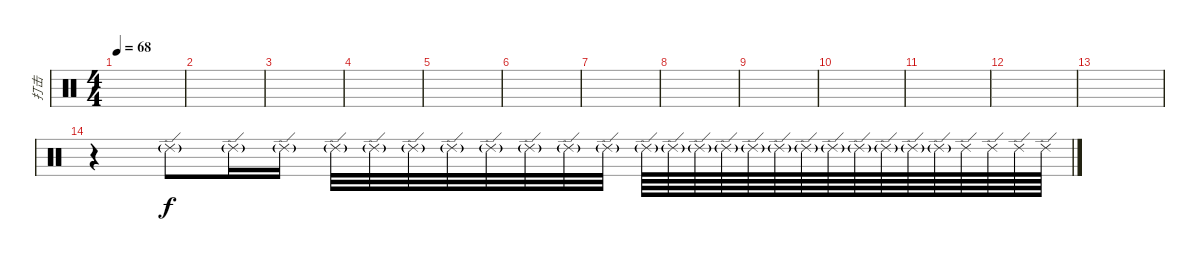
\track ("打击" "打击") {instrument percussion}
\staff {score}
\articulation defaults
\ts (4 4)
\tempo 68
\clef neutral
\ks c
|
|
|
|
|
|
|
|
|
|
|
|
|
r.4 "Ride (edge) 2"{g}.8 "Ride (edge) 2"{g}.16 "Ride (edge) 2"{g}.16 "Ride (edge) 2"{g}.32 "Ride (edge) 2"{g}.32 "Ride (edge) 2"{g}.32 "Ride (edge) 2"{g}.32 "Ride (edge) 2"{g}.32 "Ride (edge) 2"{g}.32 "Ride (edge) 2"{g}.32 "Ride (edge) 2"{g}.32 "Ride (edge) 2"{g}.64 "Ride (edge) 2"{g}.64 "Ride (edge) 2"{g}.64 "Ride (edge) 2"{g}.64 "Ride (edge) 2"{g}.64 "Ride (edge) 2"{g}.64 "Ride (edge) 2"{g}.64 "Ride (edge) 2"{g}.64 "Ride (edge) 2"{g}.64 "Ride (edge) 2"{g}.64 "Ride (edge) 2"{g}.64 "Ride (edge) 2"{g}.64 "Ride (edge) 2".64{dy f} "Ride (edge) 2".64 "Ride (edge) 2".64 "Ride (edge) 2".64
